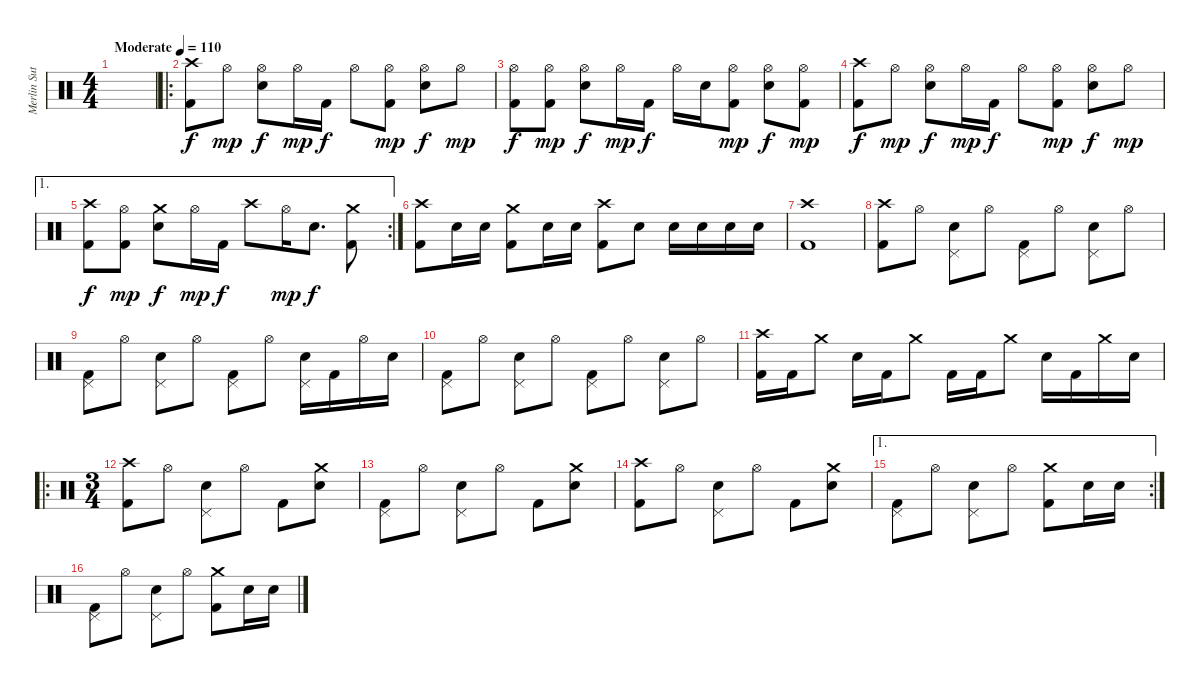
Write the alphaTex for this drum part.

\track ("Merlin Sutter" "Merlin Sut") {instrument percussion}
\staff {score}
\articulation defaults
\ts (4 4)
\tempo (110 "Moderate")
\clef neutral
\ks c
|
\ro
("Crash high (hit)" "Kick (hit) 2").8 "Hi-Hat (open)".8{dy mp} ("Hi-Hat (open)" "Snare (hit) 2").8{dy f} "Hi-Hat (open)".16{dy mp} "Kick (hit) 2".16{dy f} "Hi-Hat (open)".8 ("Hi-Hat (open)" "Kick (hit) 2").8{dy mp} ("Hi-Hat (open)" "Snare (hit) 2").8{dy f} "Hi-Hat (open)".8{dy mp} |
("Hi-Hat (open)" "Kick (hit) 2").8{dy f} ("Hi-Hat (open)" "Kick (hit) 2").8{dy mp} ("Hi-Hat (open)" "Snare (hit) 2").8{dy f} "Hi-Hat (open)".16{dy mp} "Kick (hit) 2".16{dy f} "Hi-Hat (open)".16 "Snare (hit) 2".16 ("Hi-Hat (open)" "Kick (hit) 2").8{dy mp} ("Hi-Hat (open)" "Snare (hit) 2").8{dy f} ("Hi-Hat (open)" "Kick (hit) 2").8{dy mp} |
("Crash high (hit)" "Kick (hit) 2").8{dy f} "Hi-Hat (open)".8{dy mp} ("Hi-Hat (open)" "Snare (hit) 2").8{dy f} "Hi-Hat (open)".16{dy mp} "Kick (hit) 2".16{dy f} "Hi-Hat (open)".8 ("Hi-Hat (open)" "Kick (hit) 2").8{dy mp} ("Hi-Hat (open)" "Snare (hit) 2").8{dy f} "Hi-Hat (open)".8{dy mp} |
\ae 1
\rc 2
("Crash high (hit)" "Kick (hit) 2").8{dy f} ("Hi-Hat (open)" "Kick (hit) 2").8{dy mp} ("Crash medium (hit)" "Snare (hit) 2").8{dy f} "Hi-Hat (open)".16{dy mp} "Kick (hit) 2".16{dy f} "Crash high (hit)".8 "Hi-Hat (open)".16{dy mp} "Snare (hit) 2".8{d dy f} ("Crash medium (hit)" "Kick (hit) 2").8 |
("Crash high (hit)" "Kick (hit) 2").8 "Snare (hit) 2".16 "Snare (hit) 2".16 ("Crash medium (hit)" "Kick (hit) 2").8 "Snare (hit) 2".16 "Snare (hit) 2".16 ("Crash high (hit)" "Kick (hit) 2").8 "Snare (hit) 2".8 "Snare (hit) 2".16 "Snare (hit) 2".16 "Snare (hit) 2".16 "Snare (hit) 2".16 |
("Crash high (hit)" "Kick (hit) 2").1 |
("Crash high (hit)" "Kick (hit) 2").8 "Hi-Hat (open)".8 ("Pedal Hi-Hat (hit)" "Snare (hit) 2").8 "Hi-Hat (open)".8 ("Pedal Hi-Hat (hit)" "Kick (hit) 2").8 "Hi-Hat (open)".8 ("Pedal Hi-Hat (hit)" "Snare (hit) 2").8 "Hi-Hat (open)".8 |
("Pedal Hi-Hat (hit)" "Kick (hit) 2").8 "Hi-Hat (open)".8 ("Pedal Hi-Hat (hit)" "Snare (hit) 2").8 "Hi-Hat (open)".8 ("Pedal Hi-Hat (hit)" "Kick (hit) 2").8 "Hi-Hat (open)".8 ("Pedal Hi-Hat (hit)" "Snare (hit) 2").16 "Kick (hit) 2".16 "Hi-Hat (open)".16 "Snare (hit) 2".16 |
("Pedal Hi-Hat (hit)" "Kick (hit) 2").8 "Hi-Hat (open)".8 ("Pedal Hi-Hat (hit)" "Snare (hit) 2").8 "Hi-Hat (open)".8 ("Pedal Hi-Hat (hit)" "Kick (hit) 2").8 "Hi-Hat (open)".8 ("Pedal Hi-Hat (hit)" "Snare (hit) 2").8 "Hi-Hat (open)".8 |
("Crash high (hit)" "Kick (hit) 2").16 "Kick (hit) 2".16 "Crash medium (hit)".8 "Snare (hit) 2".16 "Kick (hit) 2".16 "Crash medium (hit)".8 "Kick (hit) 2".16 "Kick (hit) 2".16 "Crash medium (hit)".8 "Snare (hit) 2".16 "Kick (hit) 2".16 "Crash medium (hit)".16 "Snare (hit) 2".16 |
\ro
\ts (3 4)
("Crash high (hit)" "Kick (hit) 2").8 "Hi-Hat (open)".8 ("Pedal Hi-Hat (hit)" "Snare (hit) 2").8 "Hi-Hat (open)".8 "Kick (hit) 2".8 ("Crash medium (hit)" "Snare (hit) 2").8 |
("Pedal Hi-Hat (hit)" "Kick (hit) 2").8 "Hi-Hat (open)".8 ("Pedal Hi-Hat (hit)" "Snare (hit) 2").8 "Hi-Hat (open)".8 "Kick (hit) 2".8 ("Crash medium (hit)" "Snare (hit) 2").8 |
("Crash high (hit)" "Kick (hit) 2").8 "Hi-Hat (open)".8 ("Pedal Hi-Hat (hit)" "Snare (hit) 2").8 "Hi-Hat (open)".8 "Kick (hit) 2".8 ("Crash medium (hit)" "Snare (hit) 2").8 |
\ae 1
\rc 2
("Pedal Hi-Hat (hit)" "Kick (hit) 2").8 "Hi-Hat (open)".8 ("Pedal Hi-Hat (hit)" "Snare (hit) 2").8 "Hi-Hat (open)".8 ("Crash medium (hit)" "Kick (hit) 2").8 "Snare (hit) 2".16 "Snare (hit) 2".16 |
("Pedal Hi-Hat (hit)" "Kick (hit) 2").8 "Hi-Hat (open)".8 ("Pedal Hi-Hat (hit)" "Snare (hit) 2").8 "Hi-Hat (open)".8 ("Crash medium (hit)" "Kick (hit) 2").8 "Snare (hit) 2".16 "Snare (hit) 2".16
